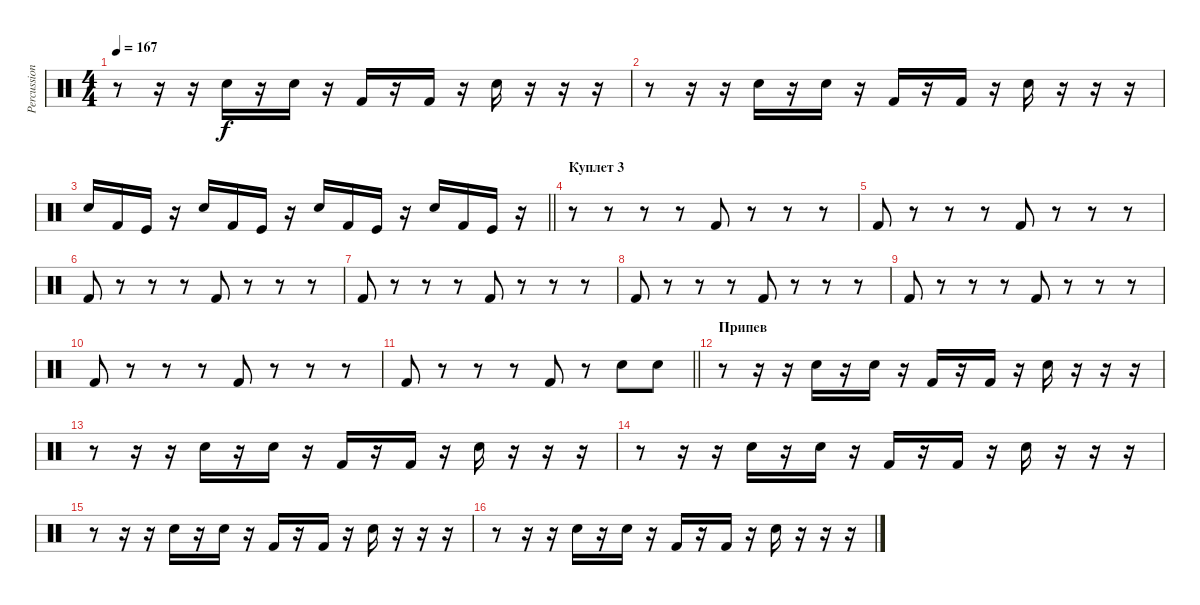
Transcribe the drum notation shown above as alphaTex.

\track ("Percussion 1" "Percussion") {instrument percussion}
\staff {score}
\articulation defaults
\ts (4 4)
\tempo 167
\clef neutral
\ks c
r.8{dy f} r.16 r.16 "Electric Snare (hit)".16 r.16 "Electric Snare (hit)".16 r.16 "Kick (hit) 2".16 r.16 "Kick (hit) 2".16 r.16 "Snare (hit) 2".16 r.16 r.16 r.16 |
r.8 r.16 r.16 "Electric Snare (hit)".16 r.16 "Electric Snare (hit)".16 r.16 "Kick (hit) 2".16 r.16 "Kick (hit) 2".16 r.16 "Snare (hit) 2".16 r.16 r.16 r.16 |
\barLineRight lightlight "Electric Snare (hit)".16 "Kick (hit) 2".16 "Kick (hit)".16
r.16 "Electric Snare (hit)".16 "Kick (hit) 2".16 "Kick (hit)".16 r.16 "Electric Snare (hit)".16 "Kick (hit) 2".16 "Kick (hit)".16 r.16 "Electric Snare (hit)".16 "Kick (hit) 2".16 "Kick (hit)".16 r.16 |
\section ("" "Куплет 3")
r.8 r.8 r.8 r.8 "Kick (hit) 2".8 r.8 r.8 r.8 |
"Kick (hit) 2".8 r.8 r.8 r.8 "Kick (hit) 2".8 r.8 r.8 r.8 |
"Kick (hit) 2".8 r.8 r.8 r.8 "Kick (hit) 2".8 r.8 r.8 r.8 |
"Kick (hit) 2".8 r.8 r.8 r.8 "Kick (hit) 2".8 r.8 r.8 r.8 |
"Kick (hit) 2".8 r.8 r.8 r.8 "Kick (hit) 2".8 r.8 r.8 r.8 |
"Kick (hit) 2".8 r.8 r.8 r.8 "Kick (hit) 2".8 r.8 r.8 r.8 |
"Kick (hit) 2".8 r.8 r.8 r.8 "Kick (hit) 2".8 r.8 r.8 r.8 |
\barLineRight lightlight "Kick (hit) 2".8
r.8 r.8 r.8 "Kick (hit) 2".8 r.8 "Snare (hit) 2".8 "Snare (hit) 2".8 |
\section ("" "Припев")
r.8 r.16 r.16 "Electric Snare (hit)".16 r.16 "Electric Snare (hit)".16 r.16 "Kick (hit) 2".16 r.16 "Kick (hit) 2".16 r.16 "Snare (hit) 2".16 r.16 r.16 r.16 |
r.8 r.16 r.16 "Electric Snare (hit)".16 r.16 "Electric Snare (hit)".16 r.16 "Kick (hit) 2".16 r.16 "Kick (hit) 2".16 r.16 "Snare (hit) 2".16 r.16 r.16 r.16 |
r.8 r.16 r.16 "Electric Snare (hit)".16 r.16 "Electric Snare (hit)".16 r.16 "Kick (hit) 2".16 r.16 "Kick (hit) 2".16 r.16 "Snare (hit) 2".16 r.16 r.16 r.16 |
r.8 r.16 r.16 "Electric Snare (hit)".16 r.16 "Electric Snare (hit)".16 r.16 "Kick (hit) 2".16 r.16 "Kick (hit) 2".16 r.16 "Snare (hit) 2".16 r.16 r.16 r.16 |
r.8 r.16 r.16 "Electric Snare (hit)".16 r.16 "Electric Snare (hit)".16 r.16 "Kick (hit) 2".16 r.16 "Kick (hit) 2".16 r.16 "Snare (hit) 2".16 r.16 r.16 r.16
